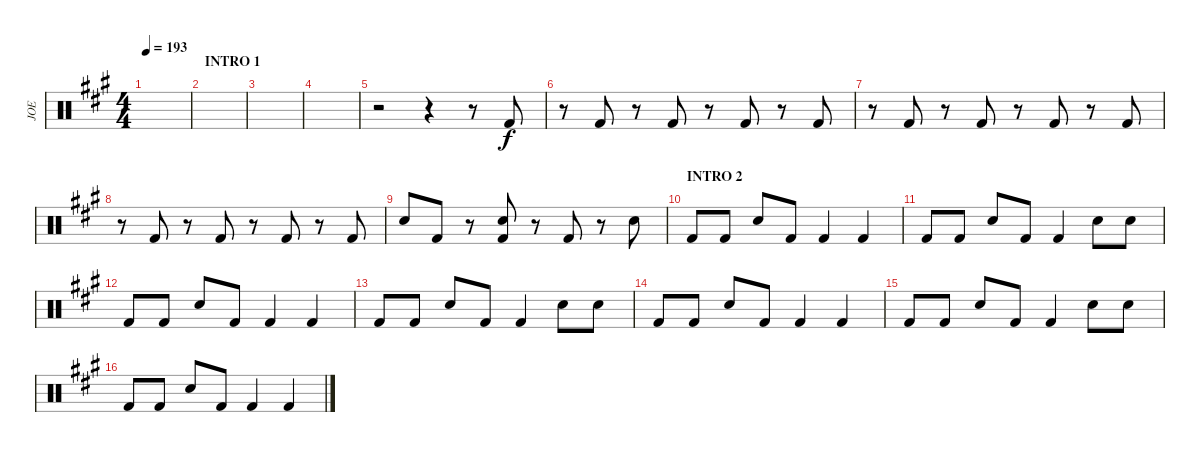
\track ("JOE" "JOE") {instrument percussion}
\staff {score}
\articulation defaults
\ts (4 4)
\tempo 193
\clef neutral
\ks a
|
\section ("" "INTRO 1")
|
|
|
r.2 r.4 r.8 "Kick (hit) 2".8 |
r.8 "Kick (hit) 2".8 r.8 "Kick (hit) 2".8 r.8 "Kick (hit) 2".8 r.8 "Kick (hit) 2".8 |
r.8 "Kick (hit) 2".8 r.8 "Kick (hit) 2".8 r.8 "Kick (hit) 2".8 r.8 "Kick (hit) 2".8 |
r.8 "Kick (hit) 2".8 r.8 "Kick (hit) 2".8 r.8 "Kick (hit) 2".8 r.8 "Kick (hit) 2".8 |
"Snare (hit) 2".8 "Kick (hit) 2".8 r.8 ("Snare (hit) 2" "Kick (hit) 2").8 r.8 "Kick (hit) 2".8 r.8 "Snare (hit) 2".8 |
\section ("" "INTRO 2")
"Kick (hit) 2".8 "Kick (hit) 2".8 "Snare (hit) 2".8 "Kick (hit) 2".8 "Kick (hit) 2".4 "Kick (hit) 2".4 |
"Kick (hit) 2".8 "Kick (hit) 2".8 "Snare (hit) 2".8 "Kick (hit) 2".8 "Kick (hit) 2".4 "Snare (hit) 2".8 "Snare (hit) 2".8 |
"Kick (hit) 2".8 "Kick (hit) 2".8 "Snare (hit) 2".8 "Kick (hit) 2".8 "Kick (hit) 2".4 "Kick (hit) 2".4 |
"Kick (hit) 2".8 "Kick (hit) 2".8 "Snare (hit) 2".8 "Kick (hit) 2".8 "Kick (hit) 2".4 "Snare (hit) 2".8 "Snare (hit) 2".8 |
"Kick (hit) 2".8 "Kick (hit) 2".8 "Snare (hit) 2".8 "Kick (hit) 2".8 "Kick (hit) 2".4 "Kick (hit) 2".4 |
"Kick (hit) 2".8 "Kick (hit) 2".8 "Snare (hit) 2".8 "Kick (hit) 2".8 "Kick (hit) 2".4 "Snare (hit) 2".8 "Snare (hit) 2".8 |
"Kick (hit) 2".8 "Kick (hit) 2".8 "Snare (hit) 2".8 "Kick (hit) 2".8 "Kick (hit) 2".4 "Kick (hit) 2".4
